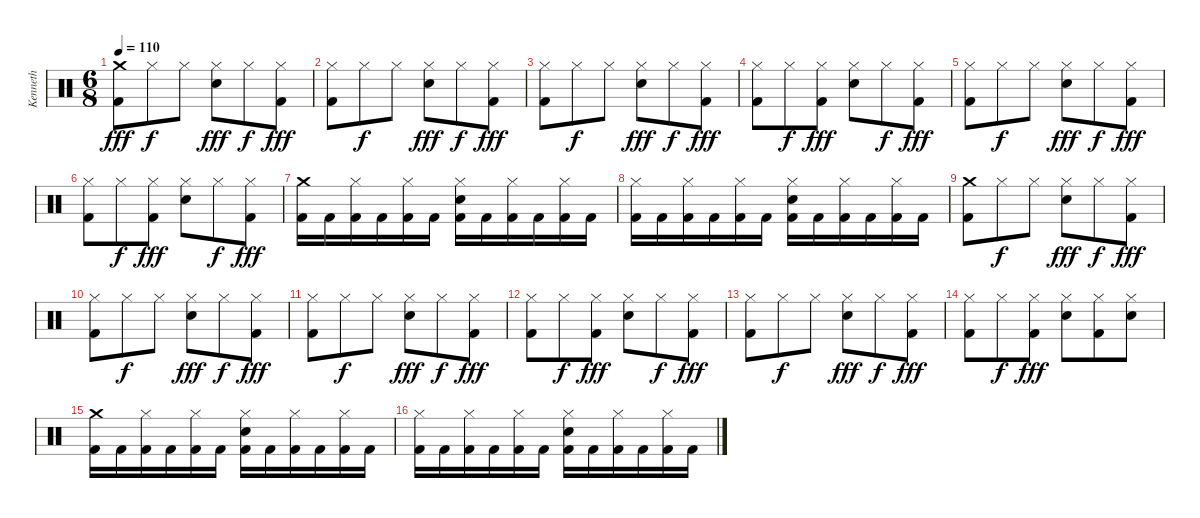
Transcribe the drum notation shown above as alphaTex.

\track ("Kenneth" "Kenneth") {instrument percussion}
\staff {score}
\articulation defaults
\ts (6 8)
\tempo 110
\clef neutral
\ks c
("Crash medium (hit)" "Kick (hit) 2").8{dy fff} "Hi-Hat (closed)".8{dy f} "Hi-Hat (closed)".8 ("Hi-Hat (closed)" "Electric Snare (hit)").8{dy fff} "Hi-Hat (closed)".8{dy f} ("Hi-Hat (closed)" "Kick (hit) 2").8{dy fff} |
("Hi-Hat (closed)" "Kick (hit) 2").8 "Hi-Hat (closed)".8{dy f} "Hi-Hat (closed)".8 ("Hi-Hat (closed)" "Electric Snare (hit)").8{dy fff} "Hi-Hat (closed)".8{dy f} ("Hi-Hat (closed)" "Kick (hit) 2").8{dy fff} |
("Hi-Hat (closed)" "Kick (hit) 2").8 "Hi-Hat (closed)".8{dy f} "Hi-Hat (closed)".8 ("Hi-Hat (closed)" "Electric Snare (hit)").8{dy fff} "Hi-Hat (closed)".8{dy f} ("Hi-Hat (closed)" "Kick (hit) 2").8{dy fff} |
("Hi-Hat (closed)" "Kick (hit) 2").8 "Hi-Hat (closed)".8{dy f} ("Hi-Hat (closed)" "Kick (hit) 2").8{dy fff} ("Hi-Hat (closed)" "Electric Snare (hit)").8 "Hi-Hat (closed)".8{dy f} ("Hi-Hat (closed)" "Kick (hit) 2").8{dy fff} |
("Hi-Hat (closed)" "Kick (hit) 2").8 "Hi-Hat (closed)".8{dy f} "Hi-Hat (closed)".8 ("Hi-Hat (closed)" "Electric Snare (hit)").8{dy fff} "Hi-Hat (closed)".8{dy f} ("Hi-Hat (closed)" "Kick (hit) 2").8{dy fff} |
("Hi-Hat (closed)" "Kick (hit) 2").8 "Hi-Hat (closed)".8{dy f} ("Hi-Hat (closed)" "Kick (hit) 2").8{dy fff} ("Hi-Hat (closed)" "Electric Snare (hit)").8 "Hi-Hat (closed)".8{dy f} ("Hi-Hat (closed)" "Kick (hit) 2").8{dy fff} |
("Crash medium (hit)" "Kick (hit) 2").16 "Kick (hit) 2".16 ("Hi-Hat (closed)" "Kick (hit) 2").16 "Kick (hit) 2".16 ("Hi-Hat (closed)" "Kick (hit) 2").16 "Kick (hit) 2".16 ("Hi-Hat (closed)" "Electric Snare (hit)" "Kick (hit) 2").16 "Kick (hit) 2".16 ("Hi-Hat (closed)" "Kick (hit) 2").16 "Kick (hit) 2".16 ("Hi-Hat (closed)" "Kick (hit) 2").16 "Kick (hit) 2".16 |
("Hi-Hat (closed)" "Kick (hit) 2").16 "Kick (hit) 2".16 ("Hi-Hat (closed)" "Kick (hit) 2").16 "Kick (hit) 2".16 ("Hi-Hat (closed)" "Kick (hit) 2").16 "Kick (hit) 2".16 ("Hi-Hat (closed)" "Electric Snare (hit)" "Kick (hit) 2").16 "Kick (hit) 2".16 ("Hi-Hat (closed)" "Kick (hit) 2").16 "Kick (hit) 2".16 ("Hi-Hat (closed)" "Kick (hit) 2").16 "Kick (hit) 2".16 |
("Crash medium (hit)" "Kick (hit) 2").8 "Hi-Hat (closed)".8{dy f} "Hi-Hat (closed)".8 ("Hi-Hat (closed)" "Electric Snare (hit)").8{dy fff} "Hi-Hat (closed)".8{dy f} ("Hi-Hat (closed)" "Kick (hit) 2").8{dy fff} |
("Hi-Hat (closed)" "Kick (hit) 2").8 "Hi-Hat (closed)".8{dy f} "Hi-Hat (closed)".8 ("Hi-Hat (closed)" "Electric Snare (hit)").8{dy fff} "Hi-Hat (closed)".8{dy f} ("Hi-Hat (closed)" "Kick (hit) 2").8{dy fff} |
("Hi-Hat (closed)" "Kick (hit) 2").8 "Hi-Hat (closed)".8{dy f} "Hi-Hat (closed)".8 ("Hi-Hat (closed)" "Electric Snare (hit)").8{dy fff} "Hi-Hat (closed)".8{dy f} ("Hi-Hat (closed)" "Kick (hit) 2").8{dy fff} |
("Hi-Hat (closed)" "Kick (hit) 2").8 "Hi-Hat (closed)".8{dy f} ("Hi-Hat (closed)" "Kick (hit) 2").8{dy fff} ("Hi-Hat (closed)" "Electric Snare (hit)").8 "Hi-Hat (closed)".8{dy f} ("Hi-Hat (closed)" "Kick (hit) 2").8{dy fff} |
("Hi-Hat (closed)" "Kick (hit) 2").8 "Hi-Hat (closed)".8{dy f} "Hi-Hat (closed)".8 ("Hi-Hat (closed)" "Electric Snare (hit)").8{dy fff} "Hi-Hat (closed)".8{dy f} ("Hi-Hat (closed)" "Kick (hit) 2").8{dy fff} |
("Hi-Hat (closed)" "Kick (hit) 2").8 "Hi-Hat (closed)".8{dy f} ("Hi-Hat (closed)" "Kick (hit) 2").8{dy fff} ("Hi-Hat (closed)" "Electric Snare (hit)").8 ("Hi-Hat (closed)" "Kick (hit) 2").8 ("Hi-Hat (closed)" "Electric Snare (hit)").8 |
("Crash medium (hit)" "Kick (hit) 2").16 "Kick (hit) 2".16 ("Hi-Hat (closed)" "Kick (hit) 2").16 "Kick (hit) 2".16 ("Hi-Hat (closed)" "Kick (hit) 2").16 "Kick (hit) 2".16 ("Hi-Hat (closed)" "Electric Snare (hit)" "Kick (hit) 2").16 "Kick (hit) 2".16 ("Hi-Hat (closed)" "Kick (hit) 2").16 "Kick (hit) 2".16 ("Hi-Hat (closed)" "Kick (hit) 2").16 "Kick (hit) 2".16 |
("Hi-Hat (closed)" "Kick (hit) 2").16 "Kick (hit) 2".16 ("Hi-Hat (closed)" "Kick (hit) 2").16 "Kick (hit) 2".16 ("Hi-Hat (closed)" "Kick (hit) 2").16 "Kick (hit) 2".16 ("Hi-Hat (closed)" "Electric Snare (hit)" "Kick (hit) 2").16 "Kick (hit) 2".16 ("Hi-Hat (closed)" "Kick (hit) 2").16 "Kick (hit) 2".16 ("Hi-Hat (closed)" "Kick (hit) 2").16 "Kick (hit) 2".16
